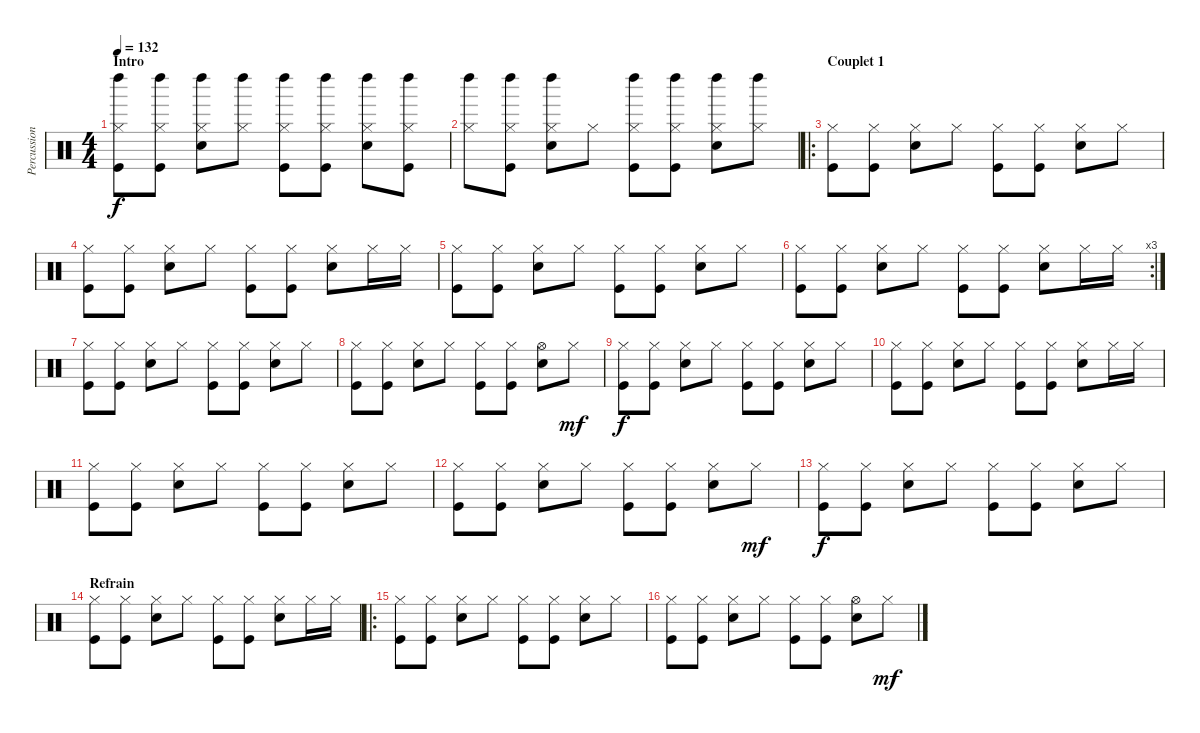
\track ("Percussions" "Percussion") {instrument percussion}
\staff {score}
\articulation defaults
\ts (4 4)
\section ("" "Intro")
\tempo 132
\clef neutral
\ks c
("Hi-Hat (closed)" "Left Maraca (hit)" "Kick (hit)").8{dy f volume 9} ("Hi-Hat (closed)" "Left Maraca (hit)" "Kick (hit)").8 ("Hi-Hat (closed)" "Left Maraca (hit)" "Electric Snare (hit)").8 ("Hi-Hat (closed)" "Left Maraca (hit)").8 ("Hi-Hat (closed)" "Left Maraca (hit)" "Kick (hit)").8 ("Hi-Hat (closed)" "Left Maraca (hit)" "Kick (hit)").8 ("Hi-Hat (closed)" "Left Maraca (hit)" "Electric Snare (hit)").8 ("Hi-Hat (closed)" "Left Maraca (hit)" "Kick (hit)").8 |
("Hi-Hat (closed)" "Left Maraca (hit)").8 ("Hi-Hat (closed)" "Left Maraca (hit)" "Kick (hit)").8 ("Hi-Hat (closed)" "Left Maraca (hit)" "Electric Snare (hit)").8 "Hi-Hat (closed)".8 ("Hi-Hat (closed)" "Left Maraca (hit)" "Kick (hit)").8 ("Hi-Hat (closed)" "Left Maraca (hit)" "Kick (hit)").8 ("Hi-Hat (closed)" "Left Maraca (hit)" "Electric Snare (hit)").8 ("Hi-Hat (closed)" "Left Maraca (hit)").8 |
\ro
\section ("" "Couplet 1")
("Hi-Hat (closed)" "Kick (hit)").8{volume 13} ("Hi-Hat (closed)" "Kick (hit)").8 ("Hi-Hat (closed)" "Electric Snare (hit)").8 "Hi-Hat (closed)".8 ("Hi-Hat (closed)" "Kick (hit)").8 ("Hi-Hat (closed)" "Kick (hit)").8 ("Hi-Hat (closed)" "Electric Snare (hit)").8 "Hi-Hat (closed)".8 |
("Hi-Hat (closed)" "Kick (hit)").8 ("Hi-Hat (closed)" "Kick (hit)").8 ("Hi-Hat (closed)" "Electric Snare (hit)").8 "Hi-Hat (closed)".8 ("Hi-Hat (closed)" "Kick (hit)").8 ("Hi-Hat (closed)" "Kick (hit)").8 ("Hi-Hat (closed)" "Electric Snare (hit)").8 "Hi-Hat (closed)".16 "Hi-Hat (closed)".16 |
("Hi-Hat (closed)" "Kick (hit)").8 ("Hi-Hat (closed)" "Kick (hit)").8 ("Hi-Hat (closed)" "Electric Snare (hit)").8 "Hi-Hat (closed)".8 ("Hi-Hat (closed)" "Kick (hit)").8 ("Hi-Hat (closed)" "Kick (hit)").8 ("Hi-Hat (closed)" "Electric Snare (hit)").8 "Hi-Hat (closed)".8 |
\rc 3
("Hi-Hat (closed)" "Kick (hit)").8 ("Hi-Hat (closed)" "Kick (hit)").8 ("Hi-Hat (closed)" "Electric Snare (hit)").8 "Hi-Hat (closed)".8 ("Hi-Hat (closed)" "Kick (hit)").8 ("Hi-Hat (closed)" "Kick (hit)").8 ("Hi-Hat (closed)" "Electric Snare (hit)").8 "Hi-Hat (closed)".16 "Hi-Hat (closed)".16 |
("Hi-Hat (closed)" "Kick (hit)").8 ("Hi-Hat (closed)" "Kick (hit)").8 ("Hi-Hat (closed)" "Electric Snare (hit)").8 "Hi-Hat (closed)".8 ("Hi-Hat (closed)" "Kick (hit)").8 ("Hi-Hat (closed)" "Kick (hit)").8 ("Hi-Hat (closed)" "Electric Snare (hit)").8 "Hi-Hat (closed)".8 |
("Hi-Hat (closed)" "Kick (hit)").8 ("Hi-Hat (closed)" "Kick (hit)").8 ("Hi-Hat (closed)" "Electric Snare (hit)").8 "Hi-Hat (closed)".8 ("Hi-Hat (closed)" "Kick (hit)").8 ("Hi-Hat (closed)" "Kick (hit)").8 ("Hi-Hat (open)" "Electric Snare (hit)").8 "Hi-Hat (closed)".8{dy mf} |
("Hi-Hat (closed)" "Kick (hit)").8{dy f} ("Hi-Hat (closed)" "Kick (hit)").8 ("Hi-Hat (closed)" "Electric Snare (hit)").8 "Hi-Hat (closed)".8 ("Hi-Hat (closed)" "Kick (hit)").8 ("Hi-Hat (closed)" "Kick (hit)").8 ("Hi-Hat (closed)" "Electric Snare (hit)").8 "Hi-Hat (closed)".8 |
("Hi-Hat (closed)" "Kick (hit)").8 ("Hi-Hat (closed)" "Kick (hit)").8 ("Hi-Hat (closed)" "Electric Snare (hit)").8 "Hi-Hat (closed)".8 ("Hi-Hat (closed)" "Kick (hit)").8 ("Hi-Hat (closed)" "Kick (hit)").8 ("Hi-Hat (closed)" "Electric Snare (hit)").8 "Hi-Hat (closed)".16 "Hi-Hat (closed)".16 |
("Hi-Hat (closed)" "Kick (hit)").8 ("Hi-Hat (closed)" "Kick (hit)").8 ("Hi-Hat (closed)" "Electric Snare (hit)").8 "Hi-Hat (closed)".8 ("Hi-Hat (closed)" "Kick (hit)").8 ("Hi-Hat (closed)" "Kick (hit)").8 ("Hi-Hat (closed)" "Electric Snare (hit)").8 "Hi-Hat (closed)".8 |
("Hi-Hat (closed)" "Kick (hit)").8 ("Hi-Hat (closed)" "Kick (hit)").8 ("Hi-Hat (closed)" "Electric Snare (hit)").8 "Hi-Hat (closed)".8 ("Hi-Hat (closed)" "Kick (hit)").8 ("Hi-Hat (closed)" "Kick (hit)").8 ("Hi-Hat (closed)" "Electric Snare (hit)").8 "Hi-Hat (closed)".8{dy mf} |
("Hi-Hat (closed)" "Kick (hit)").8{dy f} ("Hi-Hat (closed)" "Kick (hit)").8 ("Hi-Hat (closed)" "Electric Snare (hit)").8 "Hi-Hat (closed)".8 ("Hi-Hat (closed)" "Kick (hit)").8 ("Hi-Hat (closed)" "Kick (hit)").8 ("Hi-Hat (closed)" "Electric Snare (hit)").8 "Hi-Hat (closed)".8 |
\section ("" "Refrain")
("Hi-Hat (closed)" "Kick (hit)").8 ("Hi-Hat (closed)" "Kick (hit)").8 ("Hi-Hat (closed)" "Electric Snare (hit)").8 "Hi-Hat (closed)".8 ("Hi-Hat (closed)" "Kick (hit)").8 ("Hi-Hat (closed)" "Kick (hit)").8 ("Hi-Hat (closed)" "Electric Snare (hit)").8 "Hi-Hat (closed)".16 "Hi-Hat (closed)".16 |
\ro
("Hi-Hat (closed)" "Kick (hit)").8 ("Hi-Hat (closed)" "Kick (hit)").8 ("Hi-Hat (closed)" "Electric Snare (hit)").8 "Hi-Hat (closed)".8 ("Hi-Hat (closed)" "Kick (hit)").8 ("Hi-Hat (closed)" "Kick (hit)").8 ("Hi-Hat (closed)" "Electric Snare (hit)").8 "Hi-Hat (closed)".8 |
("Hi-Hat (closed)" "Kick (hit)").8 ("Hi-Hat (closed)" "Kick (hit)").8 ("Hi-Hat (closed)" "Electric Snare (hit)").8 "Hi-Hat (closed)".8 ("Hi-Hat (closed)" "Kick (hit)").8 ("Hi-Hat (closed)" "Kick (hit)").8 ("Hi-Hat (open)" "Electric Snare (hit)").8 "Hi-Hat (closed)".8{dy mf}
